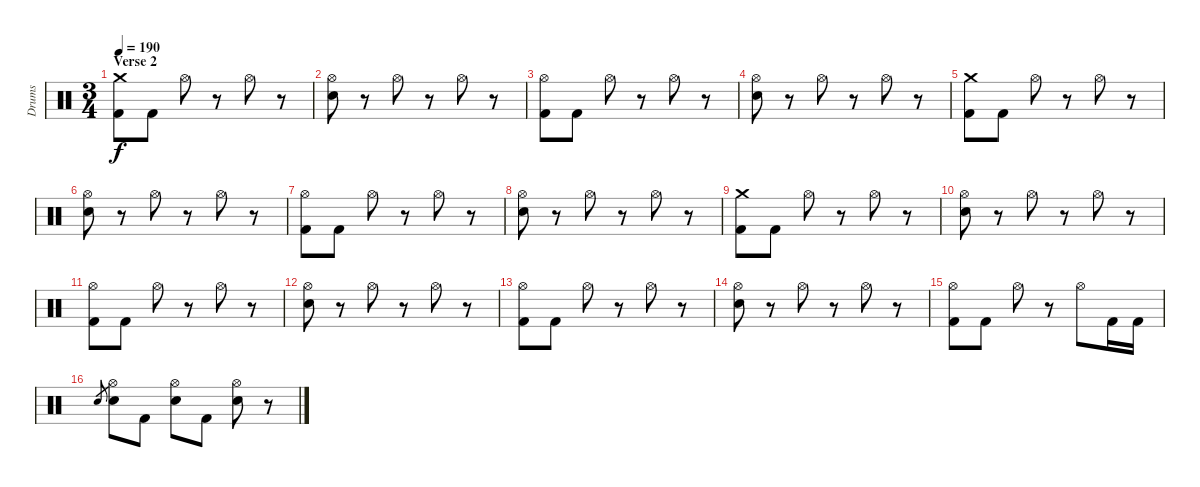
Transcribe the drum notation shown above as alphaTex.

\track ("Drums" "Drums") {instrument percussion}
\staff {score}
\articulation defaults
\ts (3 4)
\section ("" "Verse 2")
\tempo 190
\clef neutral
\ks c
("Crash medium (hit)" "Kick (hit) 2").8{dy f} "Kick (hit) 2".8 "Hi-Hat (open)".8 r.8 "Hi-Hat (open)".8 r.8 |
("Hi-Hat (open)" "Snare (hit) 2").8 r.8 "Hi-Hat (open)".8 r.8 "Hi-Hat (open)".8 r.8 |
("Hi-Hat (open)" "Kick (hit) 2").8 "Kick (hit) 2".8 "Hi-Hat (open)".8 r.8 "Hi-Hat (open)".8 r.8 |
("Hi-Hat (open)" "Snare (hit) 2").8 r.8 "Hi-Hat (open)".8 r.8 "Hi-Hat (open)".8 r.8 |
("Crash medium (hit)" "Kick (hit) 2").8 "Kick (hit) 2".8 "Hi-Hat (open)".8 r.8 "Hi-Hat (open)".8 r.8 |
("Hi-Hat (open)" "Snare (hit) 2").8 r.8 "Hi-Hat (open)".8 r.8 "Hi-Hat (open)".8 r.8 |
("Hi-Hat (open)" "Kick (hit) 2").8 "Kick (hit) 2".8 "Hi-Hat (open)".8 r.8 "Hi-Hat (open)".8 r.8 |
("Hi-Hat (open)" "Snare (hit) 2").8 r.8 "Hi-Hat (open)".8 r.8 "Hi-Hat (open)".8 r.8 |
("Crash medium (hit)" "Kick (hit) 2").8 "Kick (hit) 2".8 "Hi-Hat (open)".8 r.8 "Hi-Hat (open)".8 r.8 |
("Hi-Hat (open)" "Snare (hit) 2").8 r.8 "Hi-Hat (open)".8 r.8 "Hi-Hat (open)".8 r.8 |
("Hi-Hat (open)" "Kick (hit) 2").8 "Kick (hit) 2".8 "Hi-Hat (open)".8 r.8 "Hi-Hat (open)".8 r.8 |
("Hi-Hat (open)" "Snare (hit) 2").8 r.8 "Hi-Hat (open)".8 r.8 "Hi-Hat (open)".8 r.8 |
("Hi-Hat (open)" "Kick (hit) 2").8 "Kick (hit) 2".8 "Hi-Hat (open)".8 r.8 "Hi-Hat (open)".8 r.8 |
("Hi-Hat (open)" "Snare (hit) 2").8 r.8 "Hi-Hat (open)".8 r.8 "Hi-Hat (open)".8 r.8 |
("Hi-Hat (open)" "Kick (hit) 2").8 "Kick (hit) 2".8 "Hi-Hat (open)".8 r.8 "Hi-Hat (open)".8 "Kick (hit) 2".16 "Kick (hit) 2".16 |
"Snare (hit) 2".8{gr} ("Hi-Hat (open)" "Snare (hit) 2").8 "Kick (hit) 2".8 ("Hi-Hat (open)" "Snare (hit) 2").8 "Kick (hit) 2".8 ("Hi-Hat (open)" "Snare (hit) 2").8 r.8
